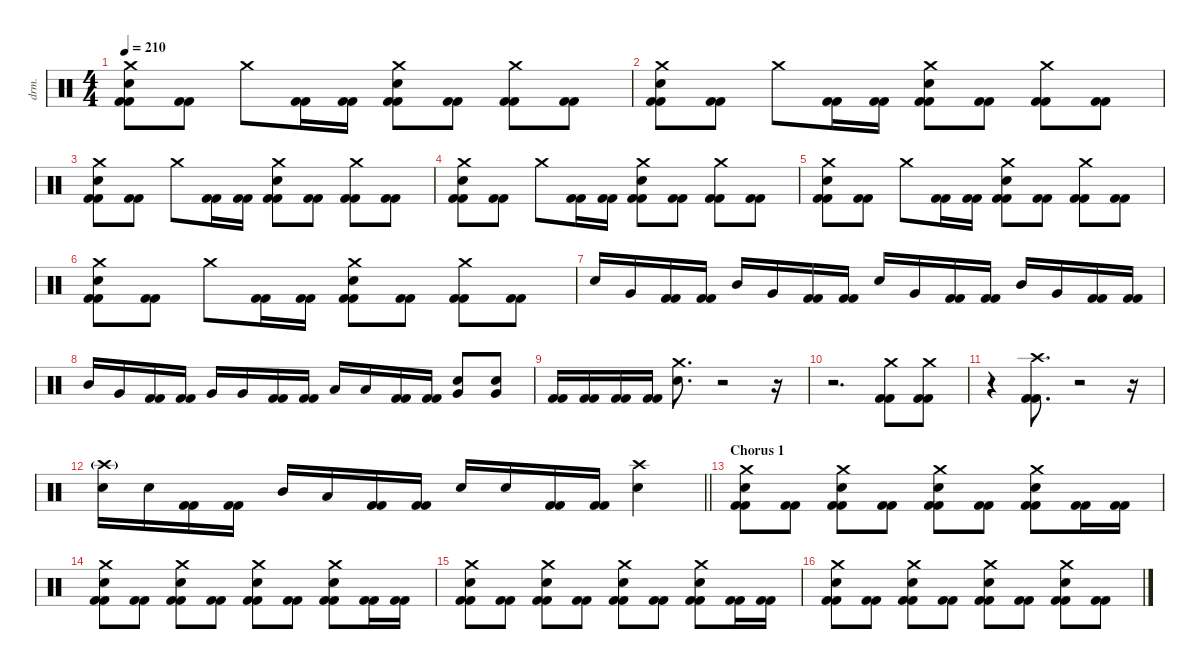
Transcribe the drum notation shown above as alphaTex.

\defaultSystemsLayout 4
\hideDynamics
\bracketExtendMode nobrackets
\otherSystemsTrackNameOrientation horizontal
\track ("Chris Adler" "drm.") {instrument percussion}
\staff {score}
\articulation defaults
\ts (4 4)
\tempo 210
\clef neutral
\ks c
("Crash medium (hit)" "Snare (hit) 2" "Kick (hit) 2" "Kick (hit) 2").8{dy f} ("Kick (hit) 2" "Kick (hit) 2").8 "Crash medium (hit)".8 ("Kick (hit) 2" "Kick (hit) 2").16 ("Kick (hit) 2" "Kick (hit) 2").16 ("Crash medium (hit)" "Snare (hit) 2" "Kick (hit) 2" "Kick (hit) 2").8 ("Kick (hit) 2" "Kick (hit) 2").8 ("Crash medium (hit)" "Kick (hit) 2" "Kick (hit) 2").8 ("Kick (hit) 2" "Kick (hit) 2").8 |
("Crash medium (hit)" "Snare (hit) 2" "Kick (hit) 2" "Kick (hit) 2").8 ("Kick (hit) 2" "Kick (hit) 2").8 "Crash medium (hit)".8 ("Kick (hit) 2" "Kick (hit) 2").16 ("Kick (hit) 2" "Kick (hit) 2").16 ("Crash medium (hit)" "Snare (hit) 2" "Kick (hit) 2" "Kick (hit) 2").8 ("Kick (hit) 2" "Kick (hit) 2").8 ("Crash medium (hit)" "Kick (hit) 2" "Kick (hit) 2").8 ("Kick (hit) 2" "Kick (hit) 2").8 |
("Crash medium (hit)" "Snare (hit) 2" "Kick (hit) 2" "Kick (hit) 2").8 ("Kick (hit) 2" "Kick (hit) 2").8 "Crash medium (hit)".8 ("Kick (hit) 2" "Kick (hit) 2").16 ("Kick (hit) 2" "Kick (hit) 2").16 ("Crash medium (hit)" "Snare (hit) 2" "Kick (hit) 2" "Kick (hit) 2").8 ("Kick (hit) 2" "Kick (hit) 2").8 ("Crash medium (hit)" "Kick (hit) 2" "Kick (hit) 2").8 ("Kick (hit) 2" "Kick (hit) 2").8 |
("Crash medium (hit)" "Snare (hit) 2" "Kick (hit) 2" "Kick (hit) 2").8 ("Kick (hit) 2" "Kick (hit) 2").8 "Crash medium (hit)".8 ("Kick (hit) 2" "Kick (hit) 2").16 ("Kick (hit) 2" "Kick (hit) 2").16 ("Crash medium (hit)" "Snare (hit) 2" "Kick (hit) 2" "Kick (hit) 2").8 ("Kick (hit) 2" "Kick (hit) 2").8 ("Crash medium (hit)" "Kick (hit) 2" "Kick (hit) 2").8 ("Kick (hit) 2" "Kick (hit) 2").8 |
("Crash medium (hit)" "Snare (hit) 2" "Kick (hit) 2" "Kick (hit) 2").8 ("Kick (hit) 2" "Kick (hit) 2").8 "Crash medium (hit)".8 ("Kick (hit) 2" "Kick (hit) 2").16 ("Kick (hit) 2" "Kick (hit) 2").16 ("Crash medium (hit)" "Snare (hit) 2" "Kick (hit) 2" "Kick (hit) 2").8 ("Kick (hit) 2" "Kick (hit) 2").8 ("Crash medium (hit)" "Kick (hit) 2" "Kick (hit) 2").8 ("Kick (hit) 2" "Kick (hit) 2").8 |
("Crash medium (hit)" "Snare (hit) 2" "Kick (hit) 2" "Kick (hit) 2").8 ("Kick (hit) 2" "Kick (hit) 2").8 "Crash medium (hit)".8 ("Kick (hit) 2" "Kick (hit) 2").16 ("Kick (hit) 2" "Kick (hit) 2").16 ("Crash medium (hit)" "Snare (hit) 2" "Kick (hit) 2" "Kick (hit) 2").8 ("Kick (hit) 2" "Kick (hit) 2").8 ("Crash medium (hit)" "Kick (hit) 2" "Kick (hit) 2").8 ("Kick (hit) 2" "Kick (hit) 2").8 |
"Snare (hit) 2".16 "Very Low Tom (hit)".16 ("Kick (hit) 2" "Kick (hit) 2").16 ("Kick (hit) 2" "Kick (hit) 2").16 "Mid Tom (hit)".16 "Very Low Tom (hit)".16 ("Kick (hit) 2" "Kick (hit) 2").16 ("Kick (hit) 2" "Kick (hit) 2").16 "Snare (hit) 2".16 "Very Low Tom (hit)".16 ("Kick (hit) 2" "Kick (hit) 2").16 ("Kick (hit) 2" "Kick (hit) 2").16 "Mid Tom (hit)".16 "Very Low Tom (hit)".16 ("Kick (hit) 2" "Kick (hit) 2").16 ("Kick (hit) 2" "Kick (hit) 2").16 |
"Mid Tom (hit)".16 "Very Low Tom (hit)".16 ("Kick (hit) 2" "Kick (hit) 2").16 ("Kick (hit) 2" "Kick (hit) 2").16 "Very Low Tom (hit)".16 "Very Low Tom (hit)".16 ("Kick (hit) 2" "Kick (hit) 2").16 ("Kick (hit) 2" "Kick (hit) 2").16 "Low Floor Tom (hit)".16 "Low Floor Tom (hit)".16 ("Kick (hit) 2" "Kick (hit) 2").16 ("Kick (hit) 2" "Kick (hit) 2").16 ("Snare (hit) 2" "Very Low Tom (hit)").8 ("Snare (hit) 2" "Very Low Tom (hit)").8 |
("Kick (hit) 2" "Kick (hit) 2").16 ("Kick (hit) 2" "Kick (hit) 2").16 ("Kick (hit) 2" "Kick (hit) 2").16 ("Kick (hit) 2" "Kick (hit) 2").16 ("Crash medium (hit)" "Snare (hit) 2").8{d} r.2 r.16 |
r.2{d} ("Crash medium (hit)" "Kick (hit) 2" "Kick (hit) 2").8 ("Crash medium (hit)" "Kick (hit) 2" "Kick (hit) 2").8 |
r.4 ("Crash high (hit)" "Kick (hit) 2" "Kick (hit) 2").8{d} r.2 r.16 |
\barLineRight lightlight
("Crash high (hit)"{g} "Snare (hit) 2").16 "Snare (hit) 2".16 ("Kick (hit) 2" "Kick (hit) 2").16 ("Kick (hit) 2" "Kick (hit) 2").16 "Mid Tom (hit)".16 "Low Tom (hit)".16 ("Kick (hit) 2" "Kick (hit) 2").16 ("Kick (hit) 2" "Kick (hit) 2").16 "Snare (hit) 2".16 "Snare (hit) 2".16 ("Kick (hit) 2" "Kick (hit) 2").16 ("Kick (hit) 2" "Kick (hit) 2").16 ("Crash high (hit)" "Snare (hit) 2").4 |
\section ("" "Chorus 1")
("Crash medium (hit)" "Snare (hit) 2" "Kick (hit) 2" "Kick (hit) 2").8 ("Kick (hit) 2" "Kick (hit) 2").8 ("Crash medium (hit)" "Snare (hit) 2" "Kick (hit) 2" "Kick (hit) 2").8 ("Kick (hit) 2" "Kick (hit) 2").8 ("Crash medium (hit)" "Snare (hit) 2" "Kick (hit) 2" "Kick (hit) 2").8 ("Kick (hit) 2" "Kick (hit) 2").8 ("Crash medium (hit)" "Snare (hit) 2" "Kick (hit) 2" "Kick (hit) 2").8 ("Kick (hit) 2" "Kick (hit) 2").16 ("Kick (hit) 2" "Kick (hit) 2").16 |
("Crash medium (hit)" "Snare (hit) 2" "Kick (hit) 2" "Kick (hit) 2").8 ("Kick (hit) 2" "Kick (hit) 2").8 ("Crash medium (hit)" "Snare (hit) 2" "Kick (hit) 2" "Kick (hit) 2").8 ("Kick (hit) 2" "Kick (hit) 2").8 ("Crash medium (hit)" "Snare (hit) 2" "Kick (hit) 2" "Kick (hit) 2").8 ("Kick (hit) 2" "Kick (hit) 2").8 ("Crash medium (hit)" "Snare (hit) 2" "Kick (hit) 2" "Kick (hit) 2").8 ("Kick (hit) 2" "Kick (hit) 2").16 ("Kick (hit) 2" "Kick (hit) 2").16 |
("Crash medium (hit)" "Snare (hit) 2" "Kick (hit) 2" "Kick (hit) 2").8 ("Kick (hit) 2" "Kick (hit) 2").8 ("Crash medium (hit)" "Snare (hit) 2" "Kick (hit) 2" "Kick (hit) 2").8 ("Kick (hit) 2" "Kick (hit) 2").8 ("Crash medium (hit)" "Snare (hit) 2" "Kick (hit) 2" "Kick (hit) 2").8 ("Kick (hit) 2" "Kick (hit) 2").8 ("Crash medium (hit)" "Snare (hit) 2" "Kick (hit) 2" "Kick (hit) 2").8 ("Kick (hit) 2" "Kick (hit) 2").16 ("Kick (hit) 2" "Kick (hit) 2").16 |
("Crash medium (hit)" "Snare (hit) 2" "Kick (hit) 2" "Kick (hit) 2").8 ("Kick (hit) 2" "Kick (hit) 2").8 ("Crash medium (hit)" "Snare (hit) 2" "Kick (hit) 2" "Kick (hit) 2").8 ("Kick (hit) 2" "Kick (hit) 2").8 ("Crash medium (hit)" "Snare (hit) 2" "Kick (hit) 2" "Kick (hit) 2").8 ("Kick (hit) 2" "Kick (hit) 2").8 ("Crash medium (hit)" "Snare (hit) 2" "Kick (hit) 2" "Kick (hit) 2").8 ("Kick (hit) 2" "Kick (hit) 2").8
